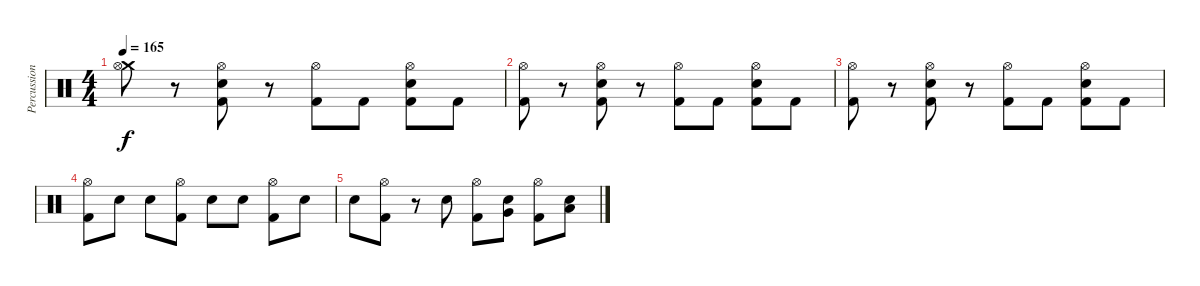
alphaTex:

\track ("Percussion" "Percussion") {instrument percussion}
\staff {score}
\articulation defaults
\ts (4 4)
\tempo 165
\clef neutral
\ks c
("Crash medium (hit)" "Hi-Hat (open)").8{dy f} r.8 ("Kick (hit) 2" "Electric Snare (hit)" "Hi-Hat (open)").8 r.8 ("Kick (hit) 2" "Hi-Hat (open)").8 "Kick (hit) 2".8 ("Kick (hit) 2" "Electric Snare (hit)" "Hi-Hat (open)").8 "Kick (hit) 2".8 |
("Kick (hit) 2" "Hi-Hat (open)").8 r.8 ("Kick (hit) 2" "Electric Snare (hit)" "Hi-Hat (open)").8 r.8 ("Kick (hit) 2" "Hi-Hat (open)").8 "Kick (hit) 2".8 ("Kick (hit) 2" "Electric Snare (hit)" "Hi-Hat (open)").8 "Kick (hit) 2".8 |
("Kick (hit) 2" "Hi-Hat (open)").8 r.8 ("Kick (hit) 2" "Electric Snare (hit)" "Hi-Hat (open)").8 r.8 ("Kick (hit) 2" "Hi-Hat (open)").8 "Kick (hit) 2".8 ("Kick (hit) 2" "Electric Snare (hit)" "Hi-Hat (open)").8 "Kick (hit) 2".8 |
("Hi-Hat (open)" "Kick (hit) 2").8 "Snare (hit)".8 "Electric Snare (hit)".8 ("Hi-Hat (open)" "Kick (hit) 2").8 "Snare (hit)".8 "Electric Snare (hit)".8 ("Hi-Hat (open)" "Kick (hit) 2").8 "Snare (hit)".8 |
"Electric Snare (hit)".8 ("Hi-Hat (open)" "Kick (hit) 2").8 r.8 "Electric Snare (hit)".8 ("Hi-Hat (open)" "Kick (hit) 2").8 ("Electric Snare (hit)" "Very Low Tom (hit)").8 ("Hi-Hat (open)" "Kick (hit) 2").8 ("Electric Snare (hit)" "Low Floor Tom (hit)").8
